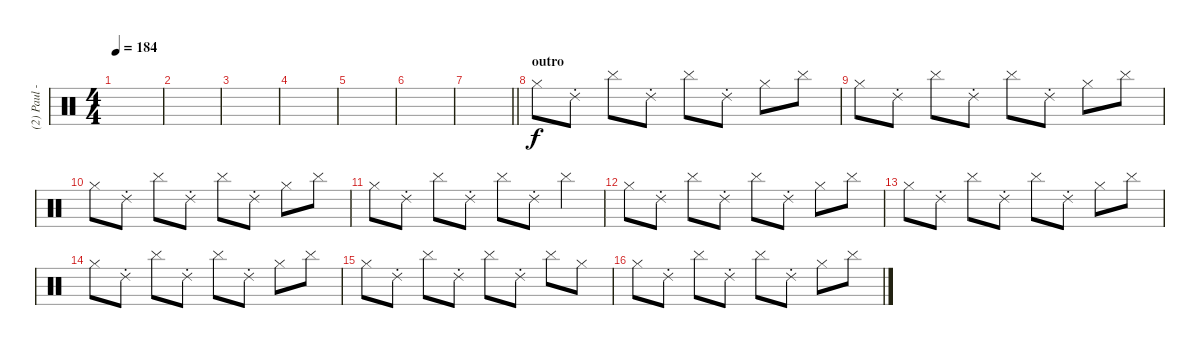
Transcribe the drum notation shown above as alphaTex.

\track ("(2) Paul - DJ" "(2) Paul -") {instrument percussion}
\staff {score}
\articulation defaults
\ts (4 4)
\tempo 184
\clef neutral
\ks c
|
|
|
|
|
|
\barLineRight lightlight
|
\section ("" "outro")
"Hi-Hat (closed)".8 "Ride (choke) 2".8 "Cymbal (hit)".8 "Ride (choke) 2".8 "Cymbal (hit)".8 "Ride (choke) 2".8 "Hi-Hat (closed)".8 "Cymbal (hit)".8 |
"Hi-Hat (closed)".8 "Ride (choke) 2".8 "Cymbal (hit)".8 "Ride (choke) 2".8 "Cymbal (hit)".8 "Ride (choke) 2".8 "Hi-Hat (closed)".8 "Cymbal (hit)".8 |
"Hi-Hat (closed)".8 "Ride (choke) 2".8 "Cymbal (hit)".8 "Ride (choke) 2".8 "Cymbal (hit)".8 "Ride (choke) 2".8 "Hi-Hat (closed)".8 "Cymbal (hit)".8 |
"Hi-Hat (closed)".8 "Ride (choke) 2".8 "Cymbal (hit)".8 "Ride (choke) 2".8 "Cymbal (hit)".8 "Ride (choke) 2".8 "Cymbal (hit)".4 |
"Hi-Hat (closed)".8 "Ride (choke) 2".8 "Cymbal (hit)".8 "Ride (choke) 2".8 "Cymbal (hit)".8 "Ride (choke) 2".8 "Hi-Hat (closed)".8 "Cymbal (hit)".8 |
"Hi-Hat (closed)".8 "Ride (choke) 2".8 "Cymbal (hit)".8 "Ride (choke) 2".8 "Cymbal (hit)".8 "Ride (choke) 2".8 "Hi-Hat (closed)".8 "Cymbal (hit)".8 |
"Hi-Hat (closed)".8 "Ride (choke) 2".8 "Cymbal (hit)".8 "Ride (choke) 2".8 "Cymbal (hit)".8 "Ride (choke) 2".8 "Hi-Hat (closed)".8 "Cymbal (hit)".8 |
"Hi-Hat (closed)".8 "Ride (choke) 2".8 "Cymbal (hit)".8 "Ride (choke) 2".8 "Cymbal (hit)".8 "Ride (choke) 2".8 "Cymbal (hit)".8 "Hi-Hat (closed)".8 |
"Hi-Hat (closed)".8 "Ride (choke) 2".8 "Cymbal (hit)".8 "Ride (choke) 2".8 "Cymbal (hit)".8 "Ride (choke) 2".8 "Hi-Hat (closed)".8 "Cymbal (hit)".8
